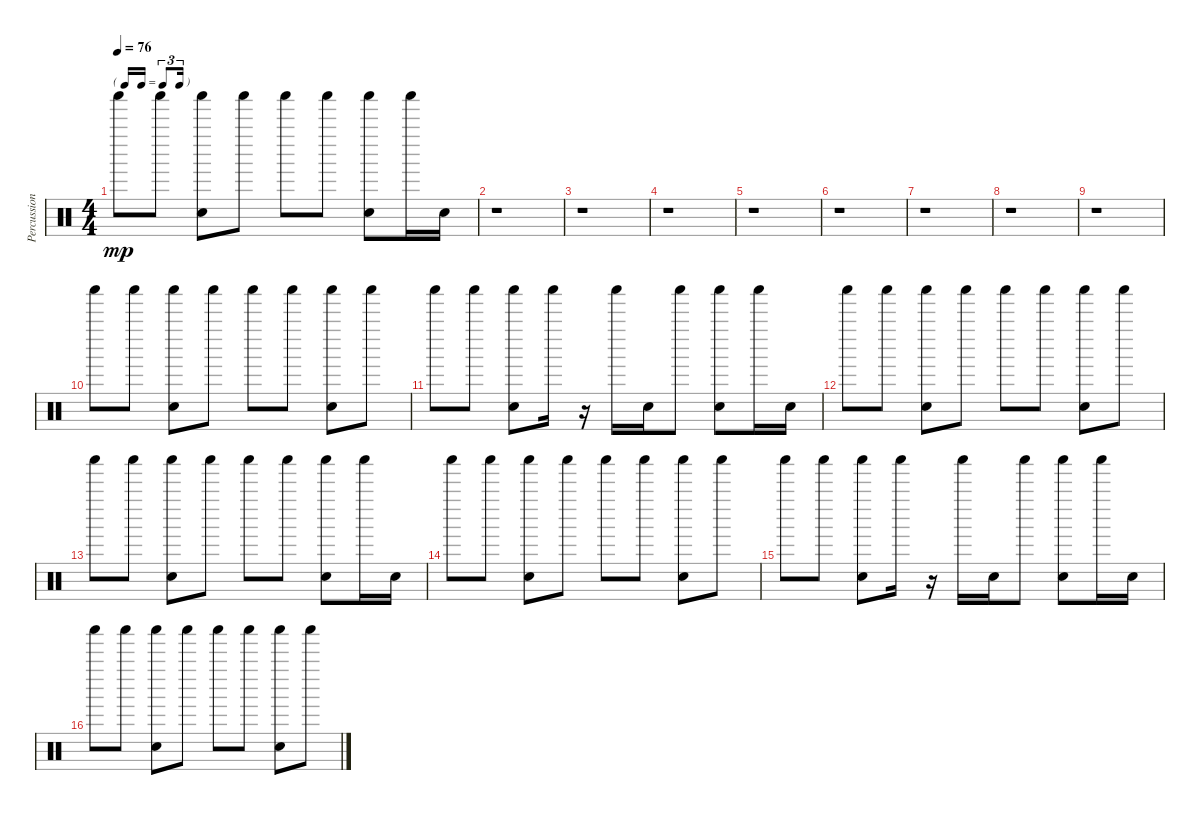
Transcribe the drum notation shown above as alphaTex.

\track ("Percussions" "Percussion") {instrument percussion}
\staff {score}
\articulation defaults
\ts (4 4)
\tf triplet16th
\tempo 76
\clef neutral
\ks c "Shaker (hit)".8{dy mp} "Shaker (hit)".8
("Shaker (hit)" "Snare (hit) 2").8 "Shaker (hit)".8 "Shaker (hit)".8 "Shaker (hit)".8 ("Shaker (hit)" "Snare (hit) 2").8 "Shaker (hit)".16 "Snare (hit) 2".16 |
r.1 |
r.1 |
r.1 |
r.1 |
r.1 |
r.1 |
r.1 |
r.1 |
"Shaker (hit)".8 "Shaker (hit)".8 ("Shaker (hit)" "Snare (hit) 2").8 "Shaker (hit)".8 "Shaker (hit)".8 "Shaker (hit)".8 ("Shaker (hit)" "Snare (hit) 2").8 "Shaker (hit)".8 |
"Shaker (hit)".8 "Shaker (hit)".8 ("Shaker (hit)" "Snare (hit) 2").8 "Shaker (hit)".16 r.16 "Shaker (hit)".16 "Snare (hit) 2".16 "Shaker (hit)".8 ("Shaker (hit)" "Snare (hit) 2").8 "Shaker (hit)".16 "Snare (hit) 2".16 |
"Shaker (hit)".8 "Shaker (hit)".8 ("Shaker (hit)" "Snare (hit) 2").8 "Shaker (hit)".8 "Shaker (hit)".8 "Shaker (hit)".8 ("Shaker (hit)" "Snare (hit) 2").8 "Shaker (hit)".8 |
"Shaker (hit)".8 "Shaker (hit)".8 ("Shaker (hit)" "Snare (hit) 2").8 "Shaker (hit)".8 "Shaker (hit)".8 "Shaker (hit)".8 ("Shaker (hit)" "Snare (hit) 2").8 "Shaker (hit)".16 "Snare (hit) 2".16 |
"Shaker (hit)".8 "Shaker (hit)".8 ("Shaker (hit)" "Snare (hit) 2").8 "Shaker (hit)".8 "Shaker (hit)".8 "Shaker (hit)".8 ("Shaker (hit)" "Snare (hit) 2").8 "Shaker (hit)".8 |
"Shaker (hit)".8 "Shaker (hit)".8 ("Shaker (hit)" "Snare (hit) 2").8 "Shaker (hit)".16 r.16 "Shaker (hit)".16 "Snare (hit) 2".16 "Shaker (hit)".8 ("Shaker (hit)" "Snare (hit) 2").8 "Shaker (hit)".16 "Snare (hit) 2".16 |
"Shaker (hit)".8 "Shaker (hit)".8 ("Shaker (hit)" "Snare (hit) 2").8 "Shaker (hit)".8 "Shaker (hit)".8 "Shaker (hit)".8 ("Shaker (hit)" "Snare (hit) 2").8 "Shaker (hit)".8
